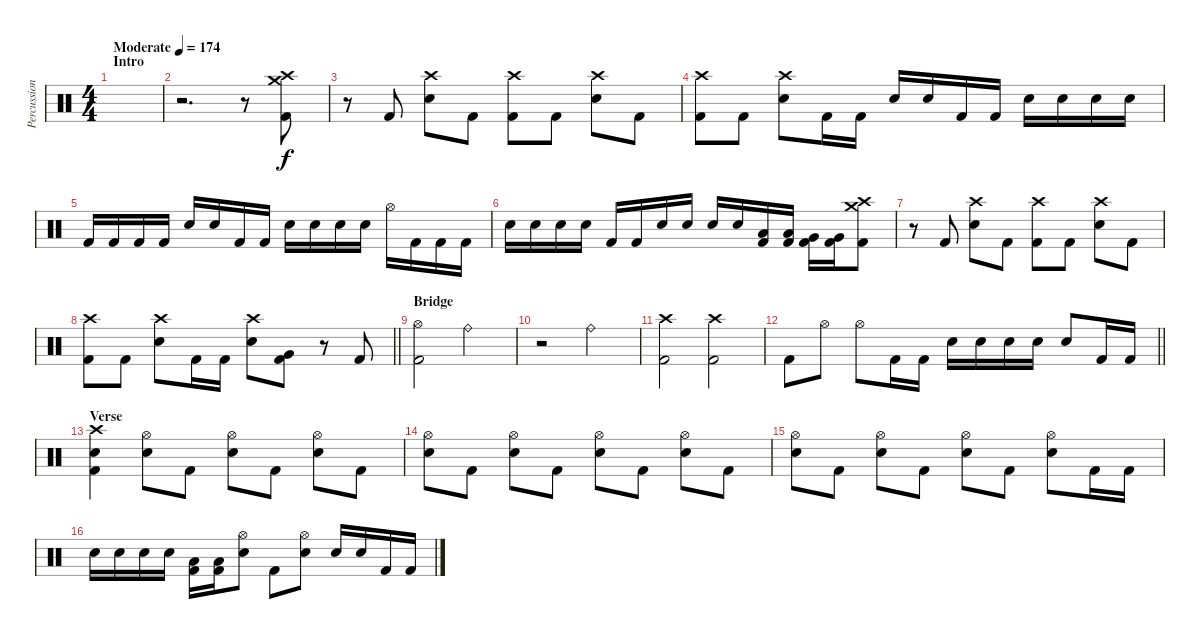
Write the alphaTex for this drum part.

\track ("Percussion" "Percussion") {instrument percussion}
\staff {score}
\articulation defaults
\ts (4 4)
\section ("" "Intro")
\tempo (174 "Moderate")
\clef neutral
\ks c
|
r.2{d} r.8 ("Crash high (hit)" "Crash medium (hit)" "Kick (hit) 2").8 |
r.8 "Kick (hit) 2".8 ("Crash high (hit)" "Electric Snare (hit)").8 "Kick (hit) 2".8 ("Crash high (hit)" "Kick (hit) 2").8 "Kick (hit) 2".8 ("Crash high (hit)" "Electric Snare (hit)").8 "Kick (hit) 2".8 |
("Crash high (hit)" "Kick (hit) 2").8 "Kick (hit) 2".8 ("Crash high (hit)" "Electric Snare (hit)").8 "Kick (hit) 2".16 "Kick (hit) 2".16 "Electric Snare (hit)".16 "Electric Snare (hit)".16 "Kick (hit) 2".16 "Kick (hit) 2".16 "Electric Snare (hit)".16 "Electric Snare (hit)".16 "Electric Snare (hit)".16 "Electric Snare (hit)".16 |
"Kick (hit) 2".16 "Kick (hit) 2".16 "Kick (hit) 2".16 "Kick (hit) 2".16 "Electric Snare (hit)".16 "Electric Snare (hit)".16 "Kick (hit) 2".16 "Kick (hit) 2".16 "Electric Snare (hit)".16 "Electric Snare (hit)".16 "Electric Snare (hit)".16 "Electric Snare (hit)".16 "Hi-Hat (open)".16 "Kick (hit) 2".16 "Kick (hit) 2".16 "Kick (hit) 2".16 |
"Electric Snare (hit)".16 "Electric Snare (hit)".16 "Electric Snare (hit)".16 "Electric Snare (hit)".16 "Kick (hit) 2".16 "Kick (hit) 2".16 "Electric Snare (hit)".16 "Electric Snare (hit)".16 "Electric Snare (hit)".16 "Electric Snare (hit)".16 ("Low Tom (hit)" "Kick (hit) 2").16 ("Low Tom (hit)" "Kick (hit) 2").16 ("Very Low Tom (hit)" "Kick (hit) 2").16 ("Very Low Tom (hit)" "Kick (hit) 2").16 ("Crash high (hit)" "Crash medium (hit)" "Kick (hit) 2").8 |
r.8 "Kick (hit) 2".8 ("Crash high (hit)" "Electric Snare (hit)").8 "Kick (hit) 2".8 ("Crash high (hit)" "Kick (hit) 2").8 "Kick (hit) 2".8 ("Crash high (hit)" "Electric Snare (hit)").8 "Kick (hit) 2".8 |
\barLineRight lightlight
("Crash high (hit)" "Kick (hit) 2").8 "Kick (hit) 2".8 ("Crash high (hit)" "Electric Snare (hit)").8 "Kick (hit) 2".16 "Kick (hit) 2".16 ("Crash high (hit)" "Electric Snare (hit)").8 ("Very Low Tom (hit)" "Kick (hit) 2").8 r.8 "Kick (hit) 2".8 |
\section ("" "Bridge")
("Hi-Hat (open)" "Kick (hit) 2").2 "Ride (bell)".2 |
r.2 "Ride (bell)".2 |
("Crash high (hit)" "Kick (hit) 2").2 ("Crash high (hit)" "Kick (hit) 2").2 |
\barLineRight lightlight "Kick (hit) 2".8 "Hi-Hat (open)".8 "Hi-Hat (open)".8 "Kick (hit) 2".16 "Kick (hit) 2".16 "Electric Snare (hit)".16 "Electric Snare (hit)".16 "Electric Snare (hit)".16 "Electric Snare (hit)".16 "Electric Snare (hit)".8 "Kick (hit) 2".16 "Kick (hit) 2".16
|
\section ("" "Verse")
("Crash high (hit)" "Electric Snare (hit)" "Kick (hit) 2").4 ("Hi-Hat (open)" "Electric Snare (hit)").8 "Kick (hit) 2".8 ("Hi-Hat (open)" "Electric Snare (hit)").8 "Kick (hit) 2".8 ("Hi-Hat (open)" "Electric Snare (hit)").8 "Kick (hit) 2".8 |
("Hi-Hat (open)" "Electric Snare (hit)").8 "Kick (hit) 2".8 ("Hi-Hat (open)" "Electric Snare (hit)").8 "Kick (hit) 2".8 ("Hi-Hat (open)" "Electric Snare (hit)").8 "Kick (hit) 2".8 ("Hi-Hat (open)" "Electric Snare (hit)").8 "Kick (hit) 2".8 |
("Hi-Hat (open)" "Electric Snare (hit)").8 "Kick (hit) 2".8 ("Hi-Hat (open)" "Electric Snare (hit)").8 "Kick (hit) 2".8 ("Hi-Hat (open)" "Electric Snare (hit)").8 "Kick (hit) 2".8 ("Hi-Hat (open)" "Electric Snare (hit)").8 "Kick (hit) 2".16 "Kick (hit) 2".16 |
"Electric Snare (hit)".16 "Electric Snare (hit)".16 "Electric Snare (hit)".16 "Electric Snare (hit)".16 ("Low Tom (hit)" "Kick (hit) 2").16 ("Low Tom (hit)" "Kick (hit) 2").16 ("Hi-Hat (open)" "Electric Snare (hit)").8 "Kick (hit) 2".8 ("Hi-Hat (open)" "Electric Snare (hit)").8 "Electric Snare (hit)".16 "Electric Snare (hit)".16 "Kick (hit) 2".16 "Kick (hit) 2".16
